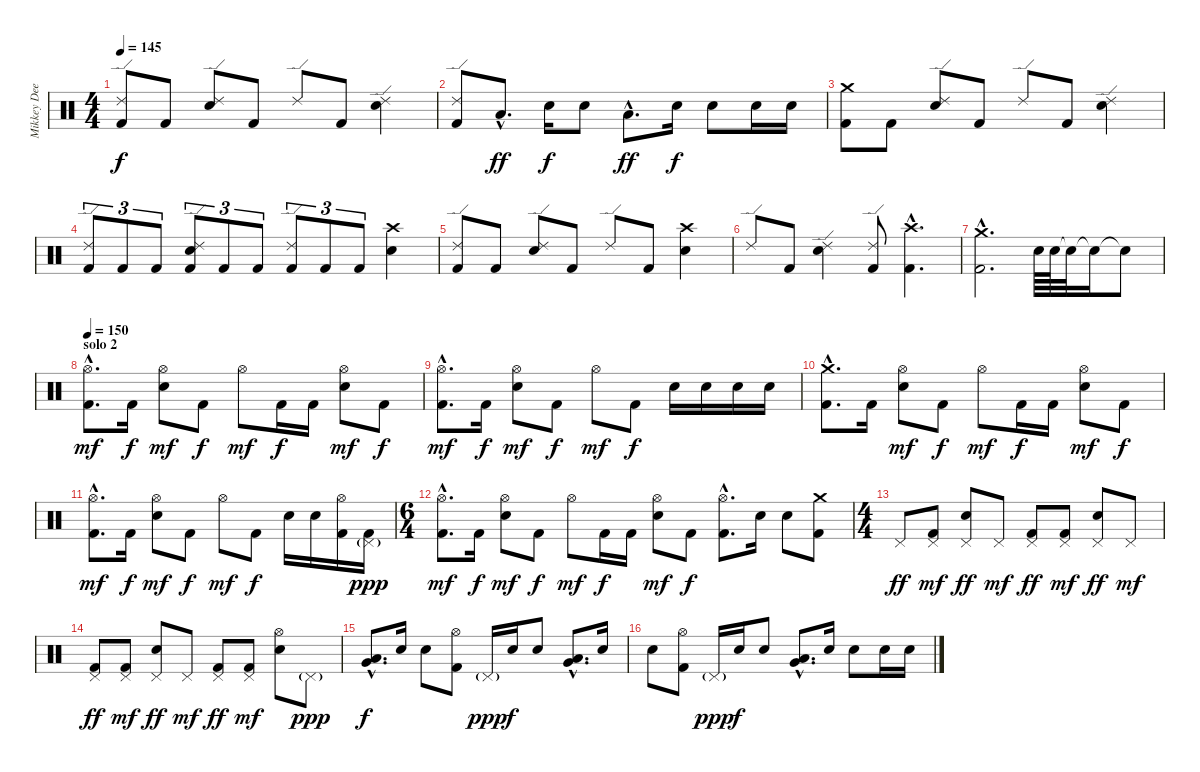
\track ("Mikkey Dee" "Mikkey Dee") {instrument percussion}
\staff {score}
\articulation defaults
\ts (4 4)
\tempo 145
\clef neutral
\ks c
("Kick (hit) 2" "Ride (edge) 2").8{dy f} "Kick (hit) 2".8 ("Ride (edge) 2" "Snare (hit) 2").8 "Kick (hit) 2".8 "Ride (edge) 2".8 "Kick (hit) 2".8 ("Ride (edge) 2" "Snare (hit) 2").4 |
("Kick (hit) 2" "Ride (edge) 2").8 "Low Tom (hit)"{hac}.8{d dy ff} "Snare (hit) 2".16{dy f} "Snare (hit) 2".8 "Low Tom (hit)"{hac}.8{d dy ff} "Snare (hit) 2".16{dy f} "Snare (hit) 2".8 "Snare (hit) 2".16 "Snare (hit) 2".16 |
("Kick (hit) 2" "Crash medium (hit)").8 "Kick (hit) 2".8 ("Ride (edge) 2" "Snare (hit) 2").8 "Kick (hit) 2".8 "Ride (edge) 2".8 "Kick (hit) 2".8 ("Ride (edge) 2" "Snare (hit) 2").4 |
("Kick (hit) 2" "Ride (edge) 2").8{tu (3 2)} "Kick (hit) 2".8{tu (3 2)} "Kick (hit) 2".8{tu (3 2)} ("Kick (hit) 2" "Ride (edge) 2" "Snare (hit) 2").8{tu (3 2)} "Kick (hit) 2".8{tu (3 2)} "Kick (hit) 2".8{tu (3 2)} ("Kick (hit) 2" "Ride (edge) 2").8{tu (3 2)} "Kick (hit) 2".8{tu (3 2)} "Kick (hit) 2".8{tu (3 2)} ("Crash high (hit)" "Snare (hit) 2").4 |
("Kick (hit) 2" "Ride (edge) 2").8 "Kick (hit) 2".8 ("Ride (edge) 2" "Snare (hit) 2").8 "Kick (hit) 2".8 "Ride (edge) 2".8 "Kick (hit) 2".8 ("Crash high (hit)" "Snare (hit) 2").4 |
"Ride (edge) 2".8 "Kick (hit) 2".8 ("Ride (edge) 2" "Snare (hit) 2").4 ("Kick (hit) 2" "Ride (edge) 2").8 ("Kick (hit) 2"{hac} "Crash high (hit)"{hac}).4{d} |
("Kick (hit) 2"{hac} "Crash medium (hit)"{hac}).2{d} "Snare (hit) 2".64 "Snare (hit) 2".64 "Snare (hit)"{t}.32 "Snare (hit)"{t}.16 "Snare (hit)"{t}.8 |
\section ("" "solo 2")
\tempo 150
("Kick (hit) 2"{hac} "Hi-Hat (open)"{hac}).8{d dy mf} "Kick (hit) 2".16{dy f} ("Hi-Hat (open)" "Snare (hit) 2").8{dy mf} "Kick (hit) 2".8{dy f} "Hi-Hat (open)".8{dy mf} "Kick (hit) 2".16{dy f} "Kick (hit) 2".16 ("Hi-Hat (open)" "Snare (hit) 2").8{dy mf} "Kick (hit) 2".8{dy f} |
("Kick (hit) 2"{hac} "Hi-Hat (open)"{hac}).8{d dy mf} "Kick (hit) 2".16{dy f} ("Hi-Hat (open)" "Snare (hit) 2").8{dy mf} "Kick (hit) 2".8{dy f} "Hi-Hat (open)".8{dy mf} "Kick (hit) 2".8{dy f} "Snare (hit) 2".16 "Snare (hit) 2".16 "Snare (hit) 2".16 "Snare (hit) 2".16 |
("Kick (hit) 2"{hac} "Crash medium (hit)"{hac}).8{d} "Kick (hit) 2".16 ("Hi-Hat (open)" "Snare (hit) 2").8{dy mf} "Kick (hit) 2".8{dy f} "Hi-Hat (open)".8{dy mf} "Kick (hit) 2".16{dy f} "Kick (hit) 2".16 ("Hi-Hat (open)" "Snare (hit) 2").8{dy mf} "Kick (hit) 2".8{dy f} |
("Kick (hit) 2"{hac} "Hi-Hat (open)"{hac}).8{d dy mf} "Kick (hit) 2".16{dy f} ("Hi-Hat (open)" "Snare (hit) 2").8{dy mf} "Kick (hit) 2".8{dy f} "Hi-Hat (open)".8{dy mf} "Kick (hit) 2".8{dy f} "Snare (hit) 2".16 "Snare (hit) 2".16 ("Kick (hit) 2" "Hi-Hat (open)").16 ("Kick (hit) 2" "Pedal Hi-Hat (hit)"{g}).16{dy ppp} |
\ts (6 4)
("Kick (hit) 2"{hac} "Hi-Hat (open)"{hac}).8{d dy mf} "Kick (hit) 2".16{dy f} ("Hi-Hat (open)" "Snare (hit) 2").8{dy mf} "Kick (hit) 2".8{dy f} "Hi-Hat (open)".8{dy mf} "Kick (hit) 2".16{dy f} "Kick (hit) 2".16 ("Hi-Hat (open)" "Snare (hit) 2").8{dy mf} "Kick (hit) 2".8{dy f} ("Kick (hit) 2"{hac} "Hi-Hat (open)"{hac}).8{d} "Snare (hit) 2".16 "Snare (hit) 2".8 ("Kick (hit) 2" "Crash medium (hit)").8 |
\ts (4 4)
"Pedal Hi-Hat (hit)".8{dy ff} ("Kick (hit) 2" "Pedal Hi-Hat (hit)").8{dy mf} ("Pedal Hi-Hat (hit)" "Snare (hit) 2").8{dy ff} "Pedal Hi-Hat (hit)".8{dy mf} ("Kick (hit) 2" "Pedal Hi-Hat (hit)").8{dy ff} ("Kick (hit) 2" "Pedal Hi-Hat (hit)").8{dy mf} ("Pedal Hi-Hat (hit)" "Snare (hit) 2").8{dy ff} "Pedal Hi-Hat (hit)".8{dy mf} |
("Kick (hit) 2" "Pedal Hi-Hat (hit)").8{dy ff} ("Kick (hit) 2" "Pedal Hi-Hat (hit)").8{dy mf} ("Pedal Hi-Hat (hit)" "Snare (hit) 2").8{dy ff} "Pedal Hi-Hat (hit)".8{dy mf} ("Kick (hit) 2" "Pedal Hi-Hat (hit)").8{dy ff} ("Kick (hit) 2" "Pedal Hi-Hat (hit)").8{dy mf} ("Hi-Hat (open)" "Snare (hit) 2").8 "Pedal Hi-Hat (hit)"{g}.8{dy ppp} |
("Low Floor Tom (hit)"{hac} "Very Low Tom (hit)"{hac}).8{d dy f} "Snare (hit) 2".16 "Snare (hit) 2".8 ("Kick (hit) 2" "Hi-Hat (open)").8 "Pedal Hi-Hat (hit)"{g}.16{dy ppp} "Snare (hit) 2".16{dy f} "Snare (hit) 2".8 ("Low Floor Tom (hit)"{hac} "Very Low Tom (hit)"{hac}).8{d} "Snare (hit) 2".16 |
"Snare (hit) 2".8 ("Kick (hit) 2" "Hi-Hat (open)").8 "Pedal Hi-Hat (hit)"{g}.16{dy ppp} "Snare (hit) 2".16{dy f} "Snare (hit) 2".8 ("Low Floor Tom (hit)"{hac} "Very Low Tom (hit)"{hac}).8{d} "Snare (hit) 2".16 "Snare (hit) 2".8 "Snare (hit) 2".16 "Snare (hit) 2".16
